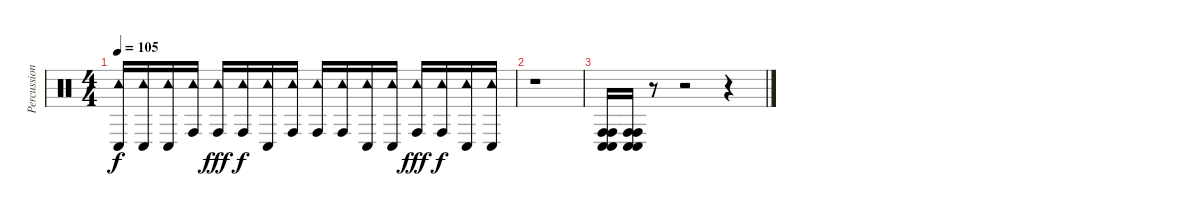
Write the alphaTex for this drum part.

\track ("Percussion" "Percussion") {instrument percussion}
\staff {score}
\articulation defaults
\ts (4 4)
\tempo 105
\clef neutral
\ks c
("Tambourine (hit)" "Conga low (hit)").16{dy f} ("Tambourine (hit)" "Conga low (hit)").16 ("Tambourine (hit)" "Conga low (hit)").16 ("Tambourine (hit)" "Conga high (hit)").16 ("Tambourine (hit)" "Conga high (hit)").16{dy fff} ("Tambourine (hit)" "Conga high (hit)").16{dy f} ("Tambourine (hit)" "Conga low (hit)").16 ("Tambourine (hit)" "Conga high (hit)").16 ("Tambourine (hit)" "Conga high (hit)").16 ("Tambourine (hit)" "Conga high (hit)").16 ("Tambourine (hit)" "Conga low (hit)").16 ("Tambourine (hit)" "Conga low (hit)").16 ("Tambourine (hit)" "Conga high (hit)").16{dy fff} ("Tambourine (hit)" "Conga high (hit)").16{dy f} ("Tambourine (hit)" "Conga low (hit)").16 ("Tambourine (hit)" "Conga low (hit)").16 |
r.1 |
("Conga high (hit)" "Conga low (hit)" "Conga high (hit)" "Conga low (hit)").16 ("Conga high (hit)" "Conga low (hit)" "Conga high (hit)" "Conga low (hit)").16 r.8 r.2 r.4
